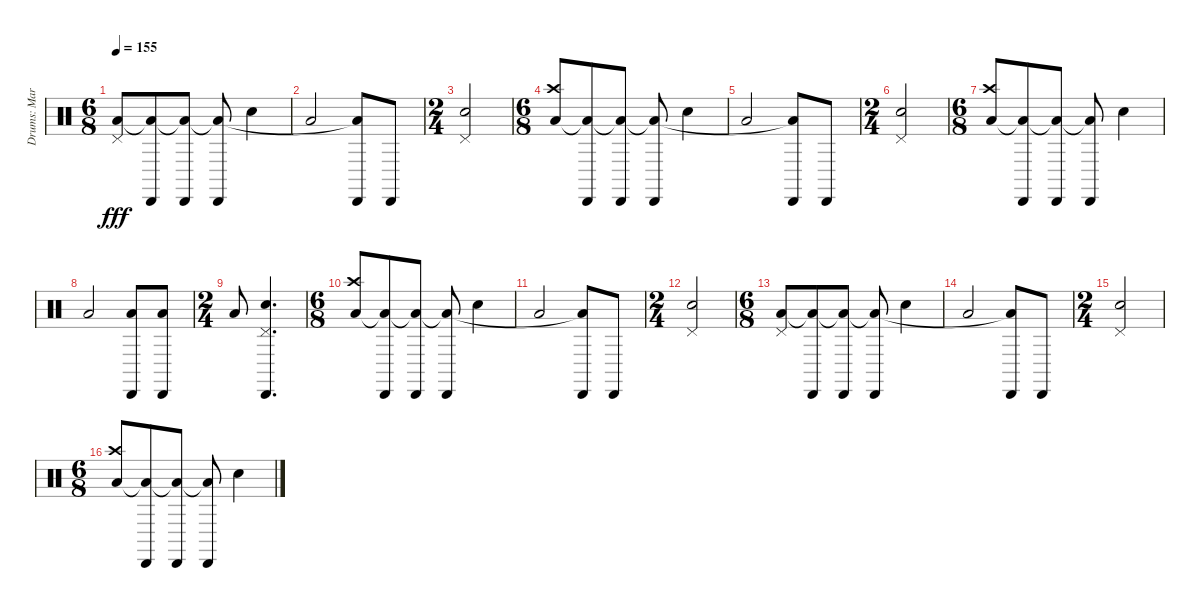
\track ("Drums: Mark Cross" "Drums: Mar") {instrument percussion}
\staff {score}
\articulation defaults
\ts (6 8)
\tempo 155
\clef neutral
\ks c
("Pedal Hi-Hat (hit)" "Low Tom (hit)").8{dy fff} ("Cabasa (hit)" "Low Tom (hit)"{t}).8 ("Cabasa (hit)" "Low Tom (hit)"{t}).8 ("Cabasa (hit)" "Low Tom (hit)"{t}).8 "Snare (hit) 2".4 |
"Low Tom (hit)".2 ("Cabasa (hit)" "Low Tom (hit)"{t}).8 "Cabasa (hit)".8 |
\ts (2 4)
("Pedal Hi-Hat (hit)" "Snare (hit) 2").2 |
\ts (6 8)
("Crash high (hit)" "Low Tom (hit)").8 ("Cabasa (hit)" "Low Tom (hit)"{t}).8 ("Cabasa (hit)" "Low Tom (hit)"{t}).8 ("Cabasa (hit)" "Low Tom (hit)"{t}).8 "Snare (hit) 2".4 |
"Low Tom (hit)".2 ("Cabasa (hit)" "Low Tom (hit)"{t}).8 "Cabasa (hit)".8 |
\ts (2 4)
("Pedal Hi-Hat (hit)" "Snare (hit) 2").2 |
\ts (6 8)
("Crash high (hit)" "Low Tom (hit)").8 ("Cabasa (hit)" "Low Tom (hit)"{t}).8 ("Cabasa (hit)" "Low Tom (hit)"{t}).8 ("Cabasa (hit)" "Low Tom (hit)"{t}).8 "Snare (hit) 2".4 |
"Low Tom (hit)".2 ("Cabasa (hit)" "Low Tom (hit)").8 ("Cabasa (hit)" "Low Tom (hit)").8 |
\ts (2 4)
"Low Tom (hit)".8 ("Pedal Hi-Hat (hit)" "Snare (hit) 2" "Cabasa (hit)").4{d} |
\ts (6 8)
("Crash high (hit)" "Low Tom (hit)").8 ("Cabasa (hit)" "Low Tom (hit)"{t}).8 ("Cabasa (hit)" "Low Tom (hit)"{t}).8 ("Cabasa (hit)" "Low Tom (hit)"{t}).8 "Snare (hit) 2".4 |
"Low Tom (hit)".2 ("Cabasa (hit)" "Low Tom (hit)"{t}).8 "Cabasa (hit)".8 |
\ts (2 4)
("Pedal Hi-Hat (hit)" "Snare (hit) 2").2 |
\ts (6 8)
("Pedal Hi-Hat (hit)" "Low Tom (hit)").8 ("Cabasa (hit)" "Low Tom (hit)"{t}).8 ("Cabasa (hit)" "Low Tom (hit)"{t}).8 ("Cabasa (hit)" "Low Tom (hit)"{t}).8 "Snare (hit) 2".4 |
"Low Tom (hit)".2 ("Cabasa (hit)" "Low Tom (hit)"{t}).8 "Cabasa (hit)".8 |
\ts (2 4)
("Pedal Hi-Hat (hit)" "Snare (hit) 2").2 |
\ts (6 8)
("Crash high (hit)" "Low Tom (hit)").8 ("Cabasa (hit)" "Low Tom (hit)"{t}).8 ("Cabasa (hit)" "Low Tom (hit)"{t}).8 ("Cabasa (hit)" "Low Tom (hit)"{t}).8 "Snare (hit) 2".4
